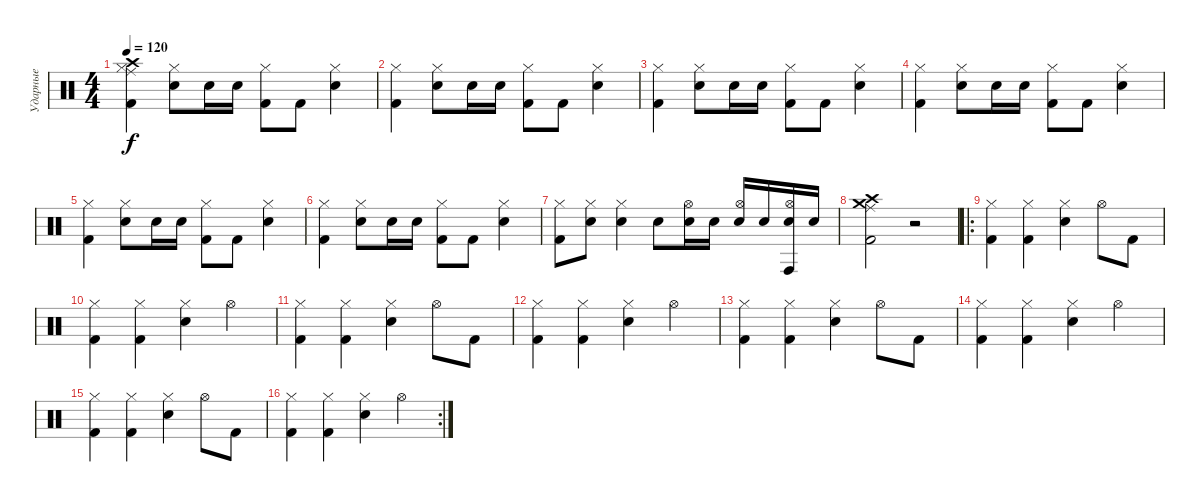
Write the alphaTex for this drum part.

\track ("Ударные" "Ударные") {instrument percussion}
\staff {score}
\articulation defaults
\ts (4 4)
\tempo 120
\clef neutral
\ks c
("Kick (hit) 2" "Hi-Hat (closed)" "Ride (middle)" "Crash high (hit)").4{dy f} ("Snare (hit) 2" "Hi-Hat (closed)").8 "Snare (hit) 2".16 "Snare (hit) 2".16 ("Kick (hit) 2" "Hi-Hat (closed)").8 "Kick (hit) 2".8 ("Snare (hit) 2" "Hi-Hat (closed)").4 |
("Kick (hit) 2" "Hi-Hat (closed)").4 ("Snare (hit) 2" "Hi-Hat (closed)").8 "Snare (hit) 2".16 "Snare (hit) 2".16 ("Kick (hit) 2" "Hi-Hat (closed)").8 "Kick (hit) 2".8 ("Snare (hit) 2" "Hi-Hat (closed)").4 |
("Kick (hit) 2" "Hi-Hat (closed)").4 ("Snare (hit) 2" "Hi-Hat (closed)").8 "Snare (hit) 2".16 "Snare (hit) 2".16 ("Kick (hit) 2" "Hi-Hat (closed)").8 "Kick (hit) 2".8 ("Snare (hit) 2" "Hi-Hat (closed)").4 |
("Kick (hit) 2" "Hi-Hat (closed)").4 ("Snare (hit) 2" "Hi-Hat (closed)").8 "Snare (hit) 2".16 "Snare (hit) 2".16 ("Kick (hit) 2" "Hi-Hat (closed)").8 "Kick (hit) 2".8 ("Snare (hit) 2" "Hi-Hat (closed)").4 |
("Kick (hit) 2" "Hi-Hat (closed)").4 ("Snare (hit) 2" "Hi-Hat (closed)").8 "Snare (hit) 2".16 "Snare (hit) 2".16 ("Kick (hit) 2" "Hi-Hat (closed)").8 "Kick (hit) 2".8 ("Snare (hit) 2" "Hi-Hat (closed)").4 |
("Kick (hit) 2" "Hi-Hat (closed)").4 ("Snare (hit) 2" "Hi-Hat (closed)").8 "Snare (hit) 2".16 "Snare (hit) 2".16 ("Kick (hit) 2" "Hi-Hat (closed)").8 "Kick (hit) 2".8 ("Snare (hit) 2" "Hi-Hat (closed)").4 |
("Kick (hit) 2" "Hi-Hat (closed)").8 ("Snare (hit) 2" "Hi-Hat (closed)").8 ("Snare (hit) 2" "Hi-Hat (closed)").4 "Snare (hit) 2".8 ("Snare (hit) 2" "Hi-Hat (open)").16 "Snare (hit) 2".16 ("Snare (hit) 2" "Hi-Hat (open)").16 "Snare (hit) 2".16 ("Snare (hit) 2" "Conga high (hit)" "Hi-Hat (open)").16 "Snare (hit) 2".16 |
("Kick (hit) 2" "Crash medium (hit)" "Ride (middle)" "Crash high (hit)").2 r.2 |
\ro
("Kick (hit) 2" "Hi-Hat (closed)").4 ("Kick (hit) 2" "Hi-Hat (closed)").4 ("Snare (hit) 2" "Hi-Hat (closed)").4 "Hi-Hat (open)".8 "Kick (hit) 2".8 |
("Kick (hit) 2" "Hi-Hat (closed)").4 ("Kick (hit) 2" "Hi-Hat (closed)").4 ("Snare (hit) 2" "Hi-Hat (closed)").4 "Hi-Hat (open)".4 |
("Kick (hit) 2" "Hi-Hat (closed)").4 ("Kick (hit) 2" "Hi-Hat (closed)").4 ("Snare (hit) 2" "Hi-Hat (closed)").4 "Hi-Hat (open)".8 "Kick (hit) 2".8 |
("Kick (hit) 2" "Hi-Hat (closed)").4 ("Kick (hit) 2" "Hi-Hat (closed)").4 ("Snare (hit) 2" "Hi-Hat (closed)").4 "Hi-Hat (open)".4 |
("Kick (hit) 2" "Hi-Hat (closed)").4 ("Kick (hit) 2" "Hi-Hat (closed)").4 ("Snare (hit) 2" "Hi-Hat (closed)").4 "Hi-Hat (open)".8 "Kick (hit) 2".8 |
("Kick (hit) 2" "Hi-Hat (closed)").4 ("Kick (hit) 2" "Hi-Hat (closed)").4 ("Snare (hit) 2" "Hi-Hat (closed)").4 "Hi-Hat (open)".4 |
("Kick (hit) 2" "Hi-Hat (closed)").4 ("Kick (hit) 2" "Hi-Hat (closed)").4 ("Snare (hit) 2" "Hi-Hat (closed)").4 "Hi-Hat (open)".8 "Kick (hit) 2".8 |
\rc 2
("Kick (hit) 2" "Hi-Hat (closed)").4 ("Kick (hit) 2" "Hi-Hat (closed)").4 ("Snare (hit) 2" "Hi-Hat (closed)").4 "Hi-Hat (open)".4
